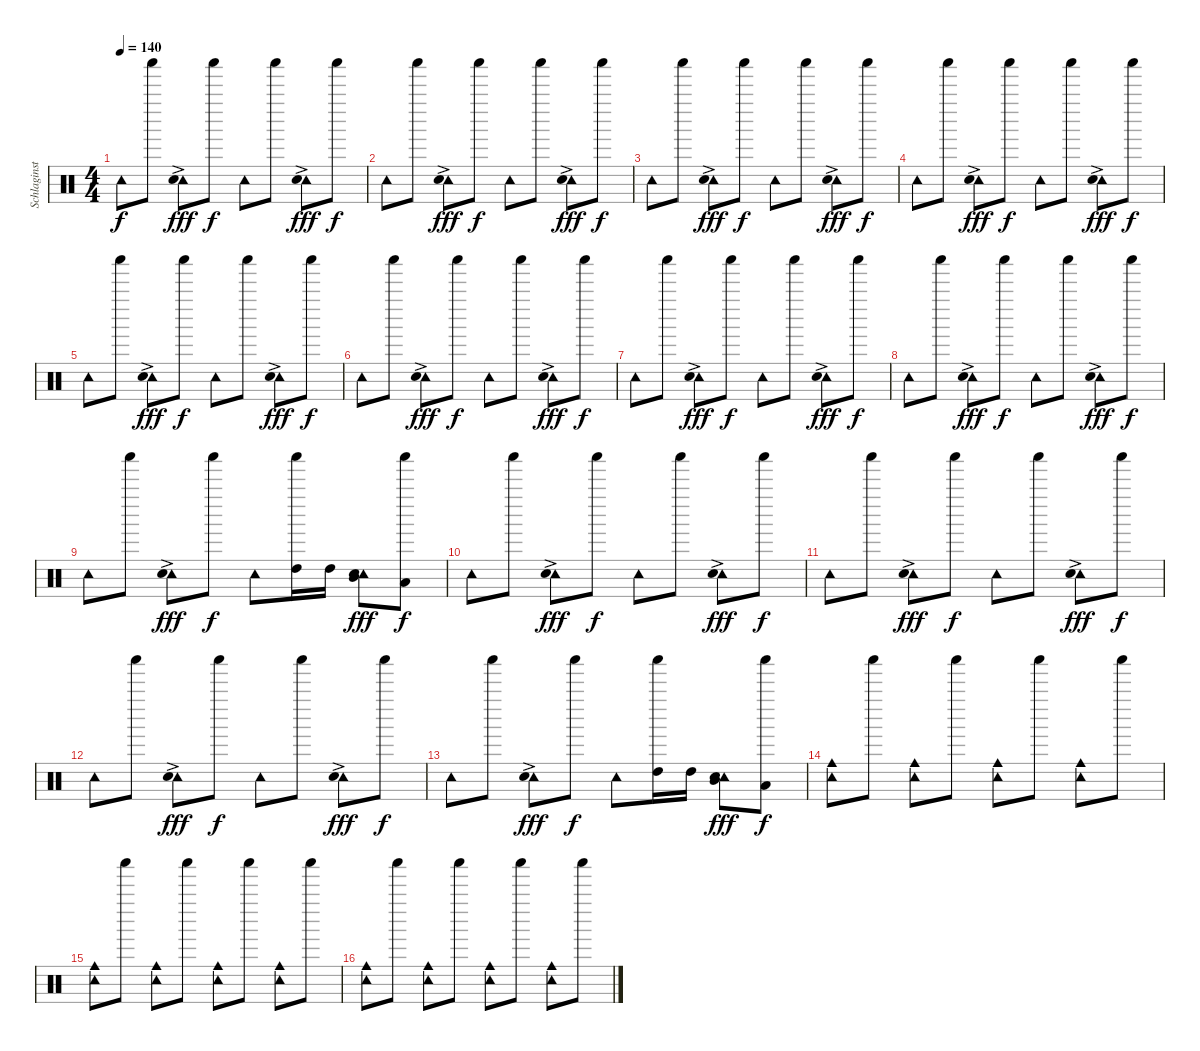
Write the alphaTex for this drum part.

\track ("Schlaginstrumente - Auswahl" "Schlaginst") {instrument percussion}
\staff {score}
\articulation defaults
\ts (4 4)
\tempo 140
\clef neutral
\ks c "Tambourine (hit)".8{dy f} "Shaker (hit)".8
("Tambourine (hit)" "Snare (hit) 2"{ac}).8{dy fff} "Shaker (hit)".8{dy f} "Tambourine (hit)".8 "Shaker (hit)".8 ("Tambourine (hit)" "Snare (hit) 2"{ac}).8{dy fff} "Shaker (hit)".8{dy f} |
"Tambourine (hit)".8 "Shaker (hit)".8 ("Tambourine (hit)" "Snare (hit) 2"{ac}).8{dy fff} "Shaker (hit)".8{dy f} "Tambourine (hit)".8 "Shaker (hit)".8 ("Tambourine (hit)" "Snare (hit) 2"{ac}).8{dy fff} "Shaker (hit)".8{dy f} |
"Tambourine (hit)".8 "Shaker (hit)".8 ("Tambourine (hit)" "Snare (hit) 2"{ac}).8{dy fff} "Shaker (hit)".8{dy f} "Tambourine (hit)".8 "Shaker (hit)".8 ("Tambourine (hit)" "Snare (hit) 2"{ac}).8{dy fff} "Shaker (hit)".8{dy f} |
"Tambourine (hit)".8 "Shaker (hit)".8 ("Tambourine (hit)" "Snare (hit) 2"{ac}).8{dy fff} "Shaker (hit)".8{dy f} "Tambourine (hit)".8 "Shaker (hit)".8 ("Tambourine (hit)" "Snare (hit) 2"{ac}).8{dy fff} "Shaker (hit)".8{dy f} |
"Tambourine (hit)".8 "Shaker (hit)".8 ("Tambourine (hit)" "Snare (hit) 2"{ac}).8{dy fff} "Shaker (hit)".8{dy f} "Tambourine (hit)".8 "Shaker (hit)".8 ("Tambourine (hit)" "Snare (hit) 2"{ac}).8{dy fff} "Shaker (hit)".8{dy f} |
"Tambourine (hit)".8 "Shaker (hit)".8 ("Tambourine (hit)" "Snare (hit) 2"{ac}).8{dy fff} "Shaker (hit)".8{dy f} "Tambourine (hit)".8 "Shaker (hit)".8 ("Tambourine (hit)" "Snare (hit) 2"{ac}).8{dy fff} "Shaker (hit)".8{dy f} |
"Tambourine (hit)".8 "Shaker (hit)".8 ("Tambourine (hit)" "Snare (hit) 2"{ac}).8{dy fff} "Shaker (hit)".8{dy f} "Tambourine (hit)".8 "Shaker (hit)".8 ("Tambourine (hit)" "Snare (hit) 2"{ac}).8{dy fff} "Shaker (hit)".8{dy f} |
"Tambourine (hit)".8 "Shaker (hit)".8 ("Tambourine (hit)" "Snare (hit) 2"{ac}).8{dy fff} "Shaker (hit)".8{dy f} "Tambourine (hit)".8 "Shaker (hit)".8 ("Tambourine (hit)" "Snare (hit) 2"{ac}).8{dy fff} "Shaker (hit)".8{dy f} |
"Tambourine (hit)".8 "Shaker (hit)".8 ("Tambourine (hit)" "Snare (hit) 2"{ac}).8{dy fff} "Shaker (hit)".8{dy f} "Tambourine (hit)".8 ("Shaker (hit)" "High Tom (hit)").16 "High Tom (hit)".16 ("Tambourine (hit)" "Mid Tom (hit)" "Snare (hit) 2").8{dy fff} ("Shaker (hit)" "Low Tom (hit)").8{dy f} |
"Tambourine (hit)".8 "Shaker (hit)".8 ("Tambourine (hit)" "Snare (hit) 2"{ac}).8{dy fff} "Shaker (hit)".8{dy f} "Tambourine (hit)".8 "Shaker (hit)".8 ("Tambourine (hit)" "Snare (hit) 2"{ac}).8{dy fff} "Shaker (hit)".8{dy f} |
"Tambourine (hit)".8 "Shaker (hit)".8 ("Tambourine (hit)" "Snare (hit) 2"{ac}).8{dy fff} "Shaker (hit)".8{dy f} "Tambourine (hit)".8 "Shaker (hit)".8 ("Tambourine (hit)" "Snare (hit) 2"{ac}).8{dy fff} "Shaker (hit)".8{dy f} |
"Tambourine (hit)".8 "Shaker (hit)".8 ("Tambourine (hit)" "Snare (hit) 2"{ac}).8{dy fff} "Shaker (hit)".8{dy f} "Tambourine (hit)".8 "Shaker (hit)".8 ("Tambourine (hit)" "Snare (hit) 2"{ac}).8{dy fff} "Shaker (hit)".8{dy f} |
"Tambourine (hit)".8 "Shaker (hit)".8 ("Tambourine (hit)" "Snare (hit) 2"{ac}).8{dy fff} "Shaker (hit)".8{dy f} "Tambourine (hit)".8 ("Shaker (hit)" "High Tom (hit)").16 "High Tom (hit)".16 ("Tambourine (hit)" "Mid Tom (hit)" "Snare (hit) 2").8{dy fff} ("Shaker (hit)" "Low Tom (hit)").8{dy f} |
("Tambourine (hit)" "Cowbell medium (hit)").8 "Shaker (hit)".8 ("Tambourine (hit)" "Cowbell medium (hit)").8 "Shaker (hit)".8 ("Tambourine (hit)" "Cowbell medium (hit)").8 "Shaker (hit)".8 ("Tambourine (hit)" "Cowbell medium (hit)").8 "Shaker (hit)".8 |
("Tambourine (hit)" "Cowbell medium (hit)").8 "Shaker (hit)".8 ("Tambourine (hit)" "Cowbell medium (hit)").8 "Shaker (hit)".8 ("Tambourine (hit)" "Cowbell medium (hit)").8 "Shaker (hit)".8 ("Tambourine (hit)" "Cowbell medium (hit)").8 "Shaker (hit)".8 |
("Tambourine (hit)" "Cowbell medium (hit)").8 "Shaker (hit)".8 ("Tambourine (hit)" "Cowbell medium (hit)").8 "Shaker (hit)".8 ("Tambourine (hit)" "Cowbell medium (hit)").8 "Shaker (hit)".8 ("Tambourine (hit)" "Cowbell medium (hit)").8 "Shaker (hit)".8
